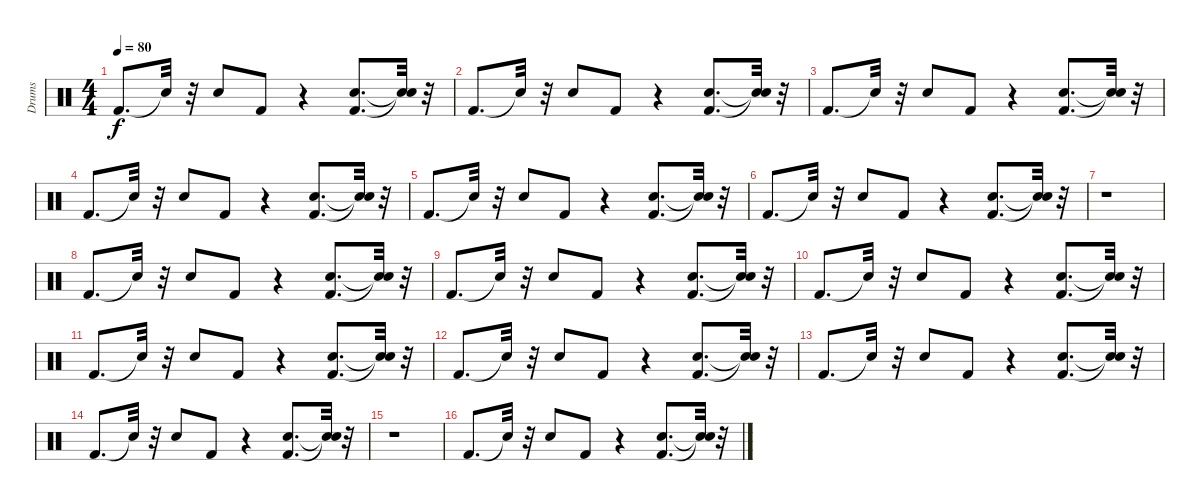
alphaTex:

\track ("Drums" "Drums") {instrument percussion}
\staff {score}
\articulation defaults
\ts (4 4)
\tempo 80
\clef neutral
\ks c "Kick (hit) 2".8{d dy f} "Snare (hit)"{t}.32
r.32 "Snare (hit) 2".8 "Kick (hit) 2".8 r.4 ("Kick (hit) 2" "Snare (hit) 2").8{d} ("Snare (hit)"{t} "Snare (hit)"{t}).32 r.32 |
"Kick (hit) 2".8{d} "Snare (hit)"{t}.32 r.32 "Snare (hit) 2".8 "Kick (hit) 2".8 r.4 ("Kick (hit) 2" "Snare (hit) 2").8{d} ("Snare (hit)"{t} "Snare (hit)"{t}).32 r.32 |
"Kick (hit) 2".8{d} "Snare (hit)"{t}.32 r.32 "Snare (hit) 2".8 "Kick (hit) 2".8 r.4 ("Kick (hit) 2" "Snare (hit) 2").8{d} ("Snare (hit)"{t} "Snare (hit)"{t}).32 r.32 |
"Kick (hit) 2".8{d} "Snare (hit)"{t}.32 r.32 "Snare (hit) 2".8 "Kick (hit) 2".8 r.4 ("Kick (hit) 2" "Snare (hit) 2").8{d} ("Snare (hit)"{t} "Snare (hit)"{t}).32 r.32 |
"Kick (hit) 2".8{d} "Snare (hit)"{t}.32 r.32 "Snare (hit) 2".8 "Kick (hit) 2".8 r.4 ("Kick (hit) 2" "Snare (hit) 2").8{d} ("Snare (hit)"{t} "Snare (hit)"{t}).32 r.32 |
"Kick (hit) 2".8{d} "Snare (hit)"{t}.32 r.32 "Snare (hit) 2".8 "Kick (hit) 2".8 r.4 ("Kick (hit) 2" "Snare (hit) 2").8{d} ("Snare (hit)"{t} "Snare (hit)"{t}).32 r.32 |
r.1 |
"Kick (hit) 2".8{d} "Snare (hit)"{t}.32 r.32 "Snare (hit) 2".8 "Kick (hit) 2".8 r.4 ("Kick (hit) 2" "Snare (hit) 2").8{d} ("Snare (hit)"{t} "Snare (hit)"{t}).32 r.32 |
"Kick (hit) 2".8{d} "Snare (hit)"{t}.32 r.32 "Snare (hit) 2".8 "Kick (hit) 2".8 r.4 ("Kick (hit) 2" "Snare (hit) 2").8{d} ("Snare (hit)"{t} "Snare (hit)"{t}).32 r.32 |
"Kick (hit) 2".8{d} "Snare (hit)"{t}.32 r.32 "Snare (hit) 2".8 "Kick (hit) 2".8 r.4 ("Kick (hit) 2" "Snare (hit) 2").8{d} ("Snare (hit)"{t} "Snare (hit)"{t}).32 r.32 |
"Kick (hit) 2".8{d} "Snare (hit)"{t}.32 r.32 "Snare (hit) 2".8 "Kick (hit) 2".8 r.4 ("Kick (hit) 2" "Snare (hit) 2").8{d} ("Snare (hit)"{t} "Snare (hit)"{t}).32 r.32 |
"Kick (hit) 2".8{d} "Snare (hit)"{t}.32 r.32 "Snare (hit) 2".8 "Kick (hit) 2".8 r.4 ("Kick (hit) 2" "Snare (hit) 2").8{d} ("Snare (hit)"{t} "Snare (hit)"{t}).32 r.32 |
"Kick (hit) 2".8{d} "Snare (hit)"{t}.32 r.32 "Snare (hit) 2".8 "Kick (hit) 2".8 r.4 ("Kick (hit) 2" "Snare (hit) 2").8{d} ("Snare (hit)"{t} "Snare (hit)"{t}).32 r.32 |
"Kick (hit) 2".8{d} "Snare (hit)"{t}.32 r.32 "Snare (hit) 2".8 "Kick (hit) 2".8 r.4 ("Kick (hit) 2" "Snare (hit) 2").8{d} ("Snare (hit)"{t} "Snare (hit)"{t}).32 r.32 |
r.1 |
"Kick (hit) 2".8{d} "Snare (hit)"{t}.32 r.32 "Snare (hit) 2".8 "Kick (hit) 2".8 r.4 ("Kick (hit) 2" "Snare (hit) 2").8{d} ("Snare (hit)"{t} "Snare (hit)"{t}).32 r.32
